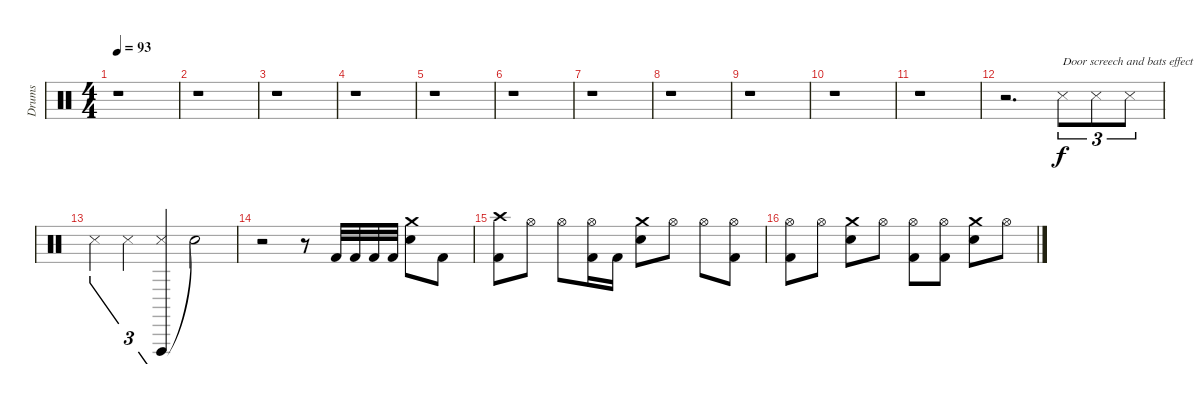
\track ("Drums" "Drums") {instrument percussion}
\staff {score}
\articulation defaults
\ts (4 4)
\tempo 93
\clef neutral
\ks c
r.1{dy f} |
r.1 |
r.1 |
r.1 |
r.1 |
r.1 |
r.1 |
r.1 |
r.1 |
r.1 |
r.1 |
r.2{d} "Snare (side stick) 3".8{tu (3 2) txt "Door screech and bats effect"} "Snare (side stick) 3".8{tu (3 2)} "Snare (side stick) 3".8{tu (3 2)} |
"Snare (side stick) 3".4{tu (3 2)} "Snare (side stick) 3".4{tu (3 2)} ("Vibraslap (hit)" "Snare (side stick) 3").4{tu (3 2)} "Snare (hit)"{t}.2 |
r.2 r.8 "Kick (hit) 2".32 "Kick (hit) 2".32 "Kick (hit) 2".32 "Kick (hit) 2".32 ("Crash medium (hit)" "Electric Snare (hit)").8 "Kick (hit) 2".8 |
("Crash high (hit)" "Kick (hit) 2").8 "Hi-Hat (open)".8 "Hi-Hat (open)".8 ("Hi-Hat (open)" "Kick (hit) 2").16 "Kick (hit) 2".16 ("Crash medium (hit)" "Electric Snare (hit)").8 "Hi-Hat (open)".8 "Hi-Hat (open)".8 ("Hi-Hat (open)" "Kick (hit) 2").8 |
("Hi-Hat (open)" "Kick (hit) 2").8 "Hi-Hat (open)".8 ("Crash medium (hit)" "Electric Snare (hit)").8 "Hi-Hat (open)".8 ("Hi-Hat (open)" "Kick (hit) 2").8 ("Hi-Hat (open)" "Kick (hit) 2").8 ("Crash medium (hit)" "Electric Snare (hit)").8 "Hi-Hat (open)".8
